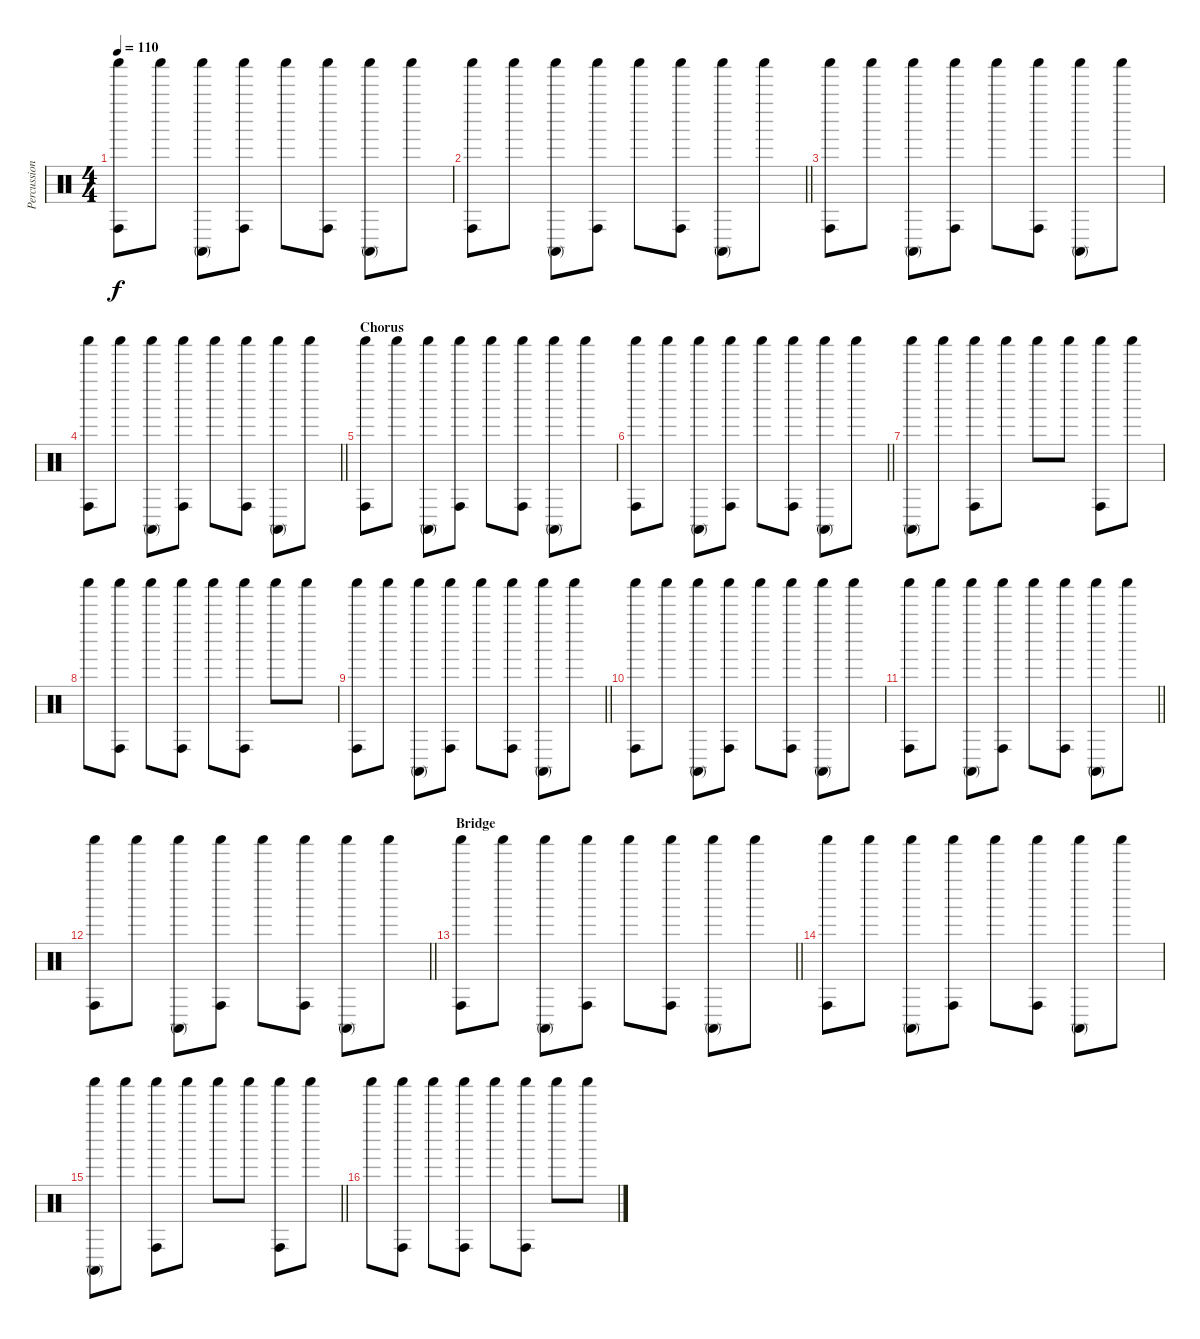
\track ("Percussion" "Percussion") {instrument percussion}
\staff {score}
\articulation defaults
\ts (4 4)
\tempo 110
\clef neutral
\ks c
("Conga high (hit)" "Shaker (hit)").8{dy f} "Shaker (hit)".8 ("Conga high (mute)" "Shaker (hit)").8 ("Conga high (hit)" "Shaker (hit)").8 "Shaker (hit)".8 ("Conga high (hit)" "Shaker (hit)").8 ("Conga high (mute)" "Shaker (hit)").8 "Shaker (hit)".8 |
\barLineRight lightlight
("Conga high (hit)" "Shaker (hit)").8 "Shaker (hit)".8 ("Conga high (mute)" "Shaker (hit)").8 ("Conga high (hit)" "Shaker (hit)").8 "Shaker (hit)".8 ("Conga high (hit)" "Shaker (hit)").8 ("Conga high (mute)" "Shaker (hit)").8 "Shaker (hit)".8 |
("Conga high (hit)" "Shaker (hit)").8 "Shaker (hit)".8 ("Conga high (mute)" "Shaker (hit)").8 ("Conga high (hit)" "Shaker (hit)").8 "Shaker (hit)".8 ("Conga high (hit)" "Shaker (hit)").8 ("Conga high (mute)" "Shaker (hit)").8 "Shaker (hit)".8 |
\barLineRight lightlight
("Conga high (hit)" "Shaker (hit)").8 "Shaker (hit)".8 ("Conga high (mute)" "Shaker (hit)").8 ("Conga high (hit)" "Shaker (hit)").8 "Shaker (hit)".8 ("Conga high (hit)" "Shaker (hit)").8 ("Conga high (mute)" "Shaker (hit)").8 "Shaker (hit)".8 |
\section ("" "Chorus")
("Conga high (hit)" "Shaker (hit)").8 "Shaker (hit)".8 ("Conga high (mute)" "Shaker (hit)").8 ("Conga high (hit)" "Shaker (hit)").8 "Shaker (hit)".8 ("Conga high (hit)" "Shaker (hit)").8 ("Conga high (mute)" "Shaker (hit)").8 "Shaker (hit)".8 |
\barLineRight lightlight
("Conga high (hit)" "Shaker (hit)").8 "Shaker (hit)".8 ("Conga high (mute)" "Shaker (hit)").8 ("Conga high (hit)" "Shaker (hit)").8 "Shaker (hit)".8 ("Conga high (hit)" "Shaker (hit)").8 ("Conga high (mute)" "Shaker (hit)").8 "Shaker (hit)".8 |
("Conga high (mute)" "Shaker (hit)").8 "Shaker (hit)".8 ("Conga high (hit)" "Shaker (hit)").8 "Shaker (hit)".8 "Shaker (hit)".8 "Shaker (hit)".8 ("Conga high (hit)" "Shaker (hit)").8 "Shaker (hit)".8 |
"Shaker (hit)".8 ("Conga high (hit)" "Shaker (hit)").8 "Shaker (hit)".8 ("Conga high (hit)" "Shaker (hit)").8 "Shaker (hit)".8 ("Conga high (hit)" "Shaker (hit)").8 "Shaker (hit)".8 "Shaker (hit)".8 |
\barLineRight lightlight
("Conga high (hit)" "Shaker (hit)").8 "Shaker (hit)".8 ("Conga high (mute)" "Shaker (hit)").8 ("Conga high (hit)" "Shaker (hit)").8 "Shaker (hit)".8 ("Conga high (hit)" "Shaker (hit)").8 ("Conga high (mute)" "Shaker (hit)").8 "Shaker (hit)".8 |
("Conga high (hit)" "Shaker (hit)").8 "Shaker (hit)".8 ("Conga high (mute)" "Shaker (hit)").8 ("Conga high (hit)" "Shaker (hit)").8 "Shaker (hit)".8 ("Conga high (hit)" "Shaker (hit)").8 ("Conga high (mute)" "Shaker (hit)").8 "Shaker (hit)".8 |
\barLineRight lightlight
("Conga high (hit)" "Shaker (hit)").8 "Shaker (hit)".8 ("Conga high (mute)" "Shaker (hit)").8 ("Conga high (hit)" "Shaker (hit)").8 "Shaker (hit)".8 ("Conga high (hit)" "Shaker (hit)").8 ("Conga high (mute)" "Shaker (hit)").8 "Shaker (hit)".8 |
\barLineRight lightlight
("Conga high (hit)" "Shaker (hit)").8 "Shaker (hit)".8 ("Conga high (mute)" "Shaker (hit)").8 ("Conga high (hit)" "Shaker (hit)").8 "Shaker (hit)".8 ("Conga high (hit)" "Shaker (hit)").8 ("Conga high (mute)" "Shaker (hit)").8 "Shaker (hit)".8 |
\section ("" "Bridge")
\barLineRight lightlight
("Conga high (hit)" "Shaker (hit)").8 "Shaker (hit)".8 ("Conga high (mute)" "Shaker (hit)").8 ("Conga high (hit)" "Shaker (hit)").8 "Shaker (hit)".8 ("Conga high (hit)" "Shaker (hit)").8 ("Conga high (mute)" "Shaker (hit)").8 "Shaker (hit)".8 |
("Conga high (hit)" "Shaker (hit)").8 "Shaker (hit)".8 ("Conga high (mute)" "Shaker (hit)").8 ("Conga high (hit)" "Shaker (hit)").8 "Shaker (hit)".8 ("Conga high (hit)" "Shaker (hit)").8 ("Conga high (mute)" "Shaker (hit)").8 "Shaker (hit)".8 |
\barLineRight lightlight
("Conga high (mute)" "Shaker (hit)").8 "Shaker (hit)".8 ("Conga high (hit)" "Shaker (hit)").8 "Shaker (hit)".8 "Shaker (hit)".8 "Shaker (hit)".8 ("Conga high (hit)" "Shaker (hit)").8 "Shaker (hit)".8 |
"Shaker (hit)".8 ("Conga high (hit)" "Shaker (hit)").8 "Shaker (hit)".8 ("Conga high (hit)" "Shaker (hit)").8 "Shaker (hit)".8 ("Conga high (hit)" "Shaker (hit)").8 "Shaker (hit)".8 "Shaker (hit)".8
